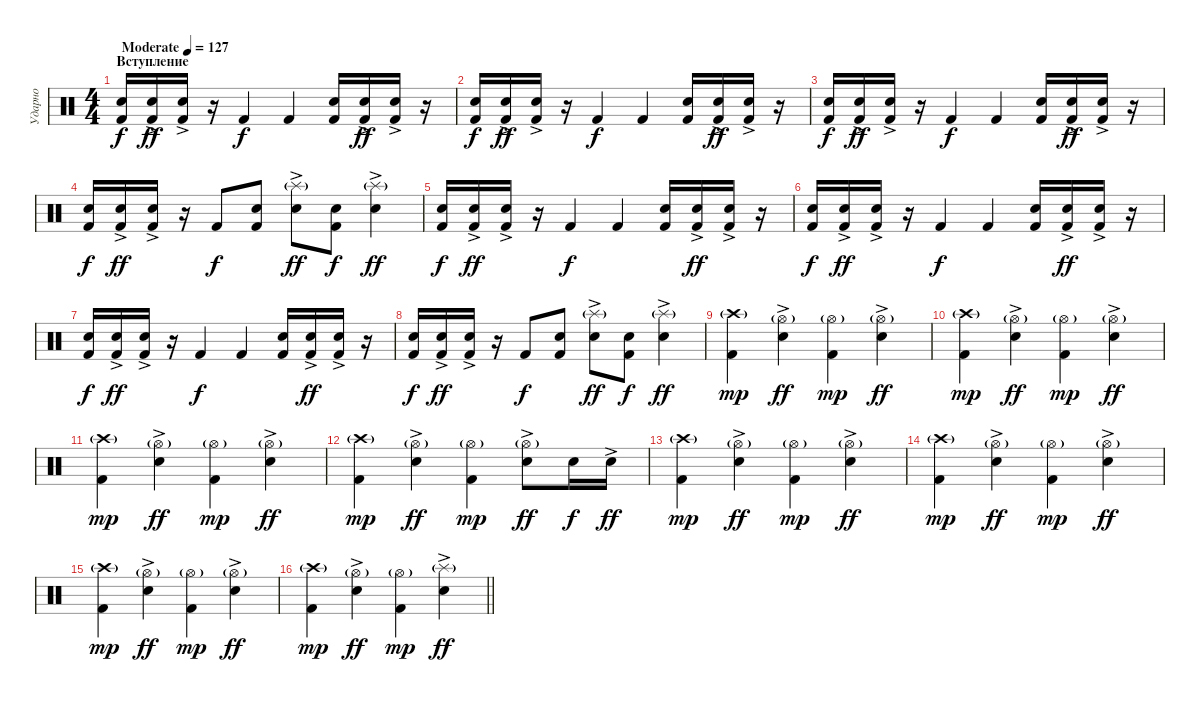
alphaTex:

\track ("Ударно" "Ударно") {instrument percussion}
\staff {score}
\articulation defaults
\ts (4 4)
\section ("" "Вступление")
\tempo (127 "Moderate")
\clef neutral
\ks c
("Electric Snare (hit)" "Kick (hit) 2").16{dy f} ("Electric Snare (hit)"{ac} "Kick (hit) 2").16{dy ff} ("Electric Snare (hit)"{ac} "Kick (hit) 2").16 r.16 "Kick (hit) 2".4{dy f} "Kick (hit) 2".4 ("Electric Snare (hit)" "Kick (hit) 2").16 ("Electric Snare (hit)"{ac} "Kick (hit) 2").16{dy ff} ("Electric Snare (hit)"{ac} "Kick (hit) 2").16 r.16 |
("Electric Snare (hit)" "Kick (hit) 2").16{dy f} ("Electric Snare (hit)"{ac} "Kick (hit) 2").16{dy ff} ("Electric Snare (hit)"{ac} "Kick (hit) 2").16 r.16 "Kick (hit) 2".4{dy f} "Kick (hit) 2".4 ("Electric Snare (hit)" "Kick (hit) 2").16 ("Electric Snare (hit)"{ac} "Kick (hit) 2").16{dy ff} ("Electric Snare (hit)"{ac} "Kick (hit) 2").16 r.16 |
("Electric Snare (hit)" "Kick (hit) 2").16{dy f} ("Electric Snare (hit)"{ac} "Kick (hit) 2").16{dy ff} ("Electric Snare (hit)"{ac} "Kick (hit) 2").16 r.16 "Kick (hit) 2".4{dy f} "Kick (hit) 2".4 ("Electric Snare (hit)" "Kick (hit) 2").16 ("Electric Snare (hit)"{ac} "Kick (hit) 2").16{dy ff} ("Electric Snare (hit)"{ac} "Kick (hit) 2").16 r.16 |
("Electric Snare (hit)" "Kick (hit) 2").16{dy f} ("Electric Snare (hit)"{ac} "Kick (hit) 2").16{dy ff} ("Electric Snare (hit)"{ac} "Kick (hit) 2").16 r.16 "Kick (hit) 2".8{dy f} ("Electric Snare (hit)" "Kick (hit) 2").8 ("Splash (hit)"{g} "Electric Snare (hit)"{ac}).8{dy ff} ("Electric Snare (hit)" "Kick (hit) 2").8{dy f} ("Splash (hit)"{g} "Electric Snare (hit)"{ac}).4{dy ff} |
("Electric Snare (hit)" "Kick (hit) 2").16{dy f} ("Electric Snare (hit)"{ac} "Kick (hit) 2").16{dy ff} ("Electric Snare (hit)"{ac} "Kick (hit) 2").16 r.16 "Kick (hit) 2".4{dy f} "Kick (hit) 2".4 ("Electric Snare (hit)" "Kick (hit) 2").16 ("Electric Snare (hit)"{ac} "Kick (hit) 2").16{dy ff} ("Electric Snare (hit)"{ac} "Kick (hit) 2").16 r.16 |
("Electric Snare (hit)" "Kick (hit) 2").16{dy f} ("Electric Snare (hit)"{ac} "Kick (hit) 2").16{dy ff} ("Electric Snare (hit)"{ac} "Kick (hit) 2").16 r.16 "Kick (hit) 2".4{dy f} "Kick (hit) 2".4 ("Electric Snare (hit)" "Kick (hit) 2").16 ("Electric Snare (hit)"{ac} "Kick (hit) 2").16{dy ff} ("Electric Snare (hit)"{ac} "Kick (hit) 2").16 r.16 |
("Electric Snare (hit)" "Kick (hit) 2").16{dy f} ("Electric Snare (hit)"{ac} "Kick (hit) 2").16{dy ff} ("Electric Snare (hit)"{ac} "Kick (hit) 2").16 r.16 "Kick (hit) 2".4{dy f} "Kick (hit) 2".4 ("Electric Snare (hit)" "Kick (hit) 2").16 ("Electric Snare (hit)"{ac} "Kick (hit) 2").16{dy ff} ("Electric Snare (hit)"{ac} "Kick (hit) 2").16 r.16 |
("Electric Snare (hit)" "Kick (hit) 2").16{dy f} ("Electric Snare (hit)"{ac} "Kick (hit) 2").16{dy ff} ("Electric Snare (hit)"{ac} "Kick (hit) 2").16 r.16 "Kick (hit) 2".8{dy f} ("Electric Snare (hit)" "Kick (hit) 2").8 ("Splash (hit)"{g} "Electric Snare (hit)"{ac}).8{dy ff} ("Electric Snare (hit)" "Kick (hit) 2").8{dy f} ("Splash (hit)"{g} "Electric Snare (hit)"{ac}).4{dy ff} |
("Crash high (hit)"{g} "Kick (hit) 2").4{dy mp} ("Hi-Hat (open)"{g} "Electric Snare (hit)"{ac}).4{dy ff} ("Hi-Hat (open)"{g} "Kick (hit) 2").4{dy mp} ("Hi-Hat (open)"{g} "Electric Snare (hit)"{ac}).4{dy ff} |
("Crash high (hit)"{g} "Kick (hit) 2").4{dy mp} ("Hi-Hat (open)"{g} "Electric Snare (hit)"{ac}).4{dy ff} ("Hi-Hat (open)"{g} "Kick (hit) 2").4{dy mp} ("Hi-Hat (open)"{g} "Electric Snare (hit)"{ac}).4{dy ff} |
("Crash high (hit)"{g} "Kick (hit) 2").4{dy mp} ("Hi-Hat (open)"{g} "Electric Snare (hit)"{ac}).4{dy ff} ("Hi-Hat (open)"{g} "Kick (hit) 2").4{dy mp} ("Hi-Hat (open)"{g} "Electric Snare (hit)"{ac}).4{dy ff} |
("Crash high (hit)"{g} "Kick (hit) 2").4{dy mp} ("Hi-Hat (open)"{g} "Electric Snare (hit)"{ac}).4{dy ff} ("Hi-Hat (open)"{g} "Kick (hit) 2").4{dy mp} ("Hi-Hat (open)"{g} "Electric Snare (hit)"{ac}).8{dy ff} "Electric Snare (hit)".16{dy f} "Electric Snare (hit)"{ac}.16{dy ff} |
("Crash high (hit)"{g} "Kick (hit) 2").4{dy mp} ("Hi-Hat (open)"{g} "Electric Snare (hit)"{ac}).4{dy ff} ("Hi-Hat (open)"{g} "Kick (hit) 2").4{dy mp} ("Hi-Hat (open)"{g} "Electric Snare (hit)"{ac}).4{dy ff} |
("Crash high (hit)"{g} "Kick (hit) 2").4{dy mp} ("Hi-Hat (open)"{g} "Electric Snare (hit)"{ac}).4{dy ff} ("Hi-Hat (open)"{g} "Kick (hit) 2").4{dy mp} ("Hi-Hat (open)"{g} "Electric Snare (hit)"{ac}).4{dy ff} |
("Crash high (hit)"{g} "Kick (hit) 2").4{dy mp} ("Hi-Hat (open)"{g} "Electric Snare (hit)"{ac}).4{dy ff} ("Hi-Hat (open)"{g} "Kick (hit) 2").4{dy mp} ("Hi-Hat (open)"{g} "Electric Snare (hit)"{ac}).4{dy ff} |
\barLineRight lightlight
("Crash high (hit)"{g} "Kick (hit) 2").4{dy mp} ("Hi-Hat (open)"{g} "Electric Snare (hit)"{ac}).4{dy ff} ("Hi-Hat (open)"{g} "Kick (hit) 2").4{dy mp} ("Splash (hit)"{g} "Electric Snare (hit)"{ac}).4{dy ff}
